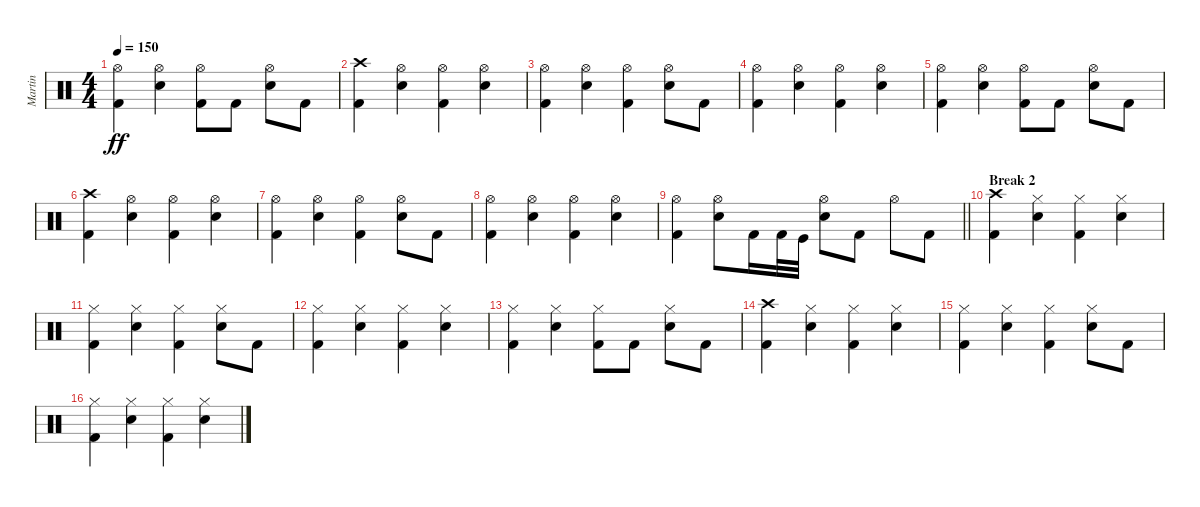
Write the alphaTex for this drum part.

\track ("Martin" "Martin") {instrument percussion}
\staff {score}
\articulation defaults
\ts (4 4)
\tempo 150
\clef neutral
\ks c
("Hi-Hat (open)" "Kick (hit) 2").4{dy ff} ("Hi-Hat (open)" "Electric Snare (hit)").4 ("Hi-Hat (open)" "Kick (hit) 2").8 "Kick (hit) 2".8 ("Hi-Hat (open)" "Electric Snare (hit)").8 "Kick (hit) 2".8 |
("Crash high (hit)" "Kick (hit) 2").4 ("Hi-Hat (open)" "Electric Snare (hit)").4 ("Hi-Hat (open)" "Kick (hit) 2").4 ("Hi-Hat (open)" "Electric Snare (hit)").4 |
("Hi-Hat (open)" "Kick (hit) 2").4 ("Hi-Hat (open)" "Electric Snare (hit)").4 ("Hi-Hat (open)" "Kick (hit) 2").4 ("Hi-Hat (open)" "Electric Snare (hit)").8 "Kick (hit) 2".8 |
("Hi-Hat (open)" "Kick (hit) 2").4 ("Hi-Hat (open)" "Electric Snare (hit)").4 ("Hi-Hat (open)" "Kick (hit) 2").4 ("Hi-Hat (open)" "Electric Snare (hit)").4 |
("Hi-Hat (open)" "Kick (hit) 2").4 ("Hi-Hat (open)" "Electric Snare (hit)").4 ("Hi-Hat (open)" "Kick (hit) 2").8 "Kick (hit) 2".8 ("Hi-Hat (open)" "Electric Snare (hit)").8 "Kick (hit) 2".8 |
("Crash high (hit)" "Kick (hit) 2").4 ("Hi-Hat (open)" "Electric Snare (hit)").4 ("Hi-Hat (open)" "Kick (hit) 2").4 ("Hi-Hat (open)" "Electric Snare (hit)").4 |
("Hi-Hat (open)" "Kick (hit) 2").4 ("Hi-Hat (open)" "Electric Snare (hit)").4 ("Hi-Hat (open)" "Kick (hit) 2").4 ("Hi-Hat (open)" "Electric Snare (hit)").8 "Kick (hit) 2".8 |
("Hi-Hat (open)" "Kick (hit) 2").4 ("Hi-Hat (open)" "Electric Snare (hit)").4 ("Hi-Hat (open)" "Kick (hit) 2").4 ("Hi-Hat (open)" "Electric Snare (hit)").4 |
\barLineRight lightlight
("Hi-Hat (open)" "Kick (hit) 2").4 ("Hi-Hat (open)" "Electric Snare (hit)").8 "Kick (hit) 2".16 "Kick (hit) 2".32 "Kick (hit)".32 ("Hi-Hat (open)" "Electric Snare (hit)").8 "Kick (hit) 2".8 "Hi-Hat (open)".8 "Kick (hit) 2".8 |
\section ("" "Break 2")
("Crash high (hit)" "Kick (hit) 2").4 ("Hi-Hat (closed)" "Electric Snare (hit)").4 ("Hi-Hat (closed)" "Kick (hit) 2").4 ("Hi-Hat (closed)" "Electric Snare (hit)").4 |
("Hi-Hat (closed)" "Kick (hit) 2").4 ("Hi-Hat (closed)" "Electric Snare (hit)").4 ("Hi-Hat (closed)" "Kick (hit) 2").4 ("Hi-Hat (closed)" "Electric Snare (hit)").8 "Kick (hit) 2".8 |
("Hi-Hat (closed)" "Kick (hit) 2").4 ("Hi-Hat (closed)" "Electric Snare (hit)").4 ("Hi-Hat (closed)" "Kick (hit) 2").4 ("Hi-Hat (closed)" "Electric Snare (hit)").4 |
("Hi-Hat (closed)" "Kick (hit) 2").4 ("Hi-Hat (closed)" "Electric Snare (hit)").4 ("Hi-Hat (closed)" "Kick (hit) 2").8 "Kick (hit) 2".8 ("Hi-Hat (closed)" "Electric Snare (hit)").8 "Kick (hit) 2".8 |
("Crash high (hit)" "Kick (hit) 2").4 ("Hi-Hat (closed)" "Electric Snare (hit)").4 ("Hi-Hat (closed)" "Kick (hit) 2").4 ("Hi-Hat (closed)" "Electric Snare (hit)").4 |
("Hi-Hat (closed)" "Kick (hit) 2").4 ("Hi-Hat (closed)" "Electric Snare (hit)").4 ("Hi-Hat (closed)" "Kick (hit) 2").4 ("Hi-Hat (closed)" "Electric Snare (hit)").8 "Kick (hit) 2".8 |
("Hi-Hat (closed)" "Kick (hit) 2").4 ("Hi-Hat (closed)" "Electric Snare (hit)").4 ("Hi-Hat (closed)" "Kick (hit) 2").4 ("Hi-Hat (closed)" "Electric Snare (hit)").4
